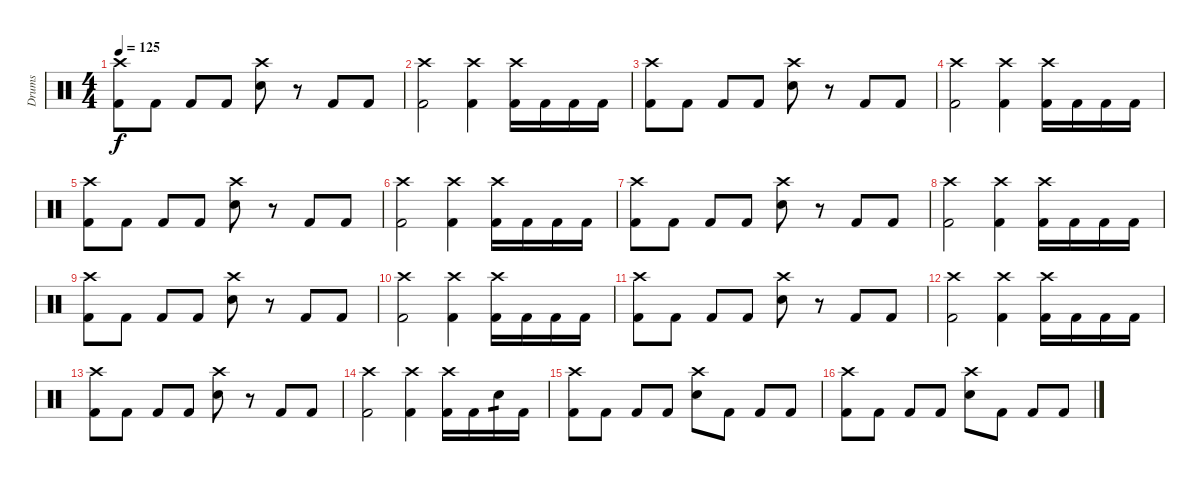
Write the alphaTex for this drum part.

\track ("Drums" "Drums") {instrument percussion}
\staff {score}
\articulation defaults
\ts (4 4)
\tempo 125
\clef neutral
\ks c
("Kick (hit) 2" "Crash high (hit)").8{dy f} "Kick (hit) 2".8 "Kick (hit) 2".8 "Kick (hit) 2".8 ("Snare (hit) 2" "Crash high (hit)").8 r.8 "Kick (hit) 2".8 "Kick (hit) 2".8 |
("Crash high (hit)" "Kick (hit) 2").2 ("Crash high (hit)" "Kick (hit) 2").4 ("Crash high (hit)" "Kick (hit) 2").16 "Kick (hit) 2".16 "Kick (hit) 2".16 "Kick (hit) 2".16 |
("Kick (hit) 2" "Crash high (hit)").8 "Kick (hit) 2".8 "Kick (hit) 2".8 "Kick (hit) 2".8 ("Snare (hit) 2" "Crash high (hit)").8 r.8 "Kick (hit) 2".8 "Kick (hit) 2".8 |
("Crash high (hit)" "Kick (hit) 2").2 ("Crash high (hit)" "Kick (hit) 2").4 ("Crash high (hit)" "Kick (hit) 2").16 "Kick (hit) 2".16 "Kick (hit) 2".16 "Kick (hit) 2".16 |
("Kick (hit) 2" "Crash high (hit)").8 "Kick (hit) 2".8 "Kick (hit) 2".8 "Kick (hit) 2".8 ("Snare (hit) 2" "Crash high (hit)").8 r.8 "Kick (hit) 2".8 "Kick (hit) 2".8 |
("Crash high (hit)" "Kick (hit) 2").2 ("Crash high (hit)" "Kick (hit) 2").4 ("Crash high (hit)" "Kick (hit) 2").16 "Kick (hit) 2".16 "Kick (hit) 2".16 "Kick (hit) 2".16 |
("Kick (hit) 2" "Crash high (hit)").8 "Kick (hit) 2".8 "Kick (hit) 2".8 "Kick (hit) 2".8 ("Snare (hit) 2" "Crash high (hit)").8 r.8 "Kick (hit) 2".8 "Kick (hit) 2".8 |
("Crash high (hit)" "Kick (hit) 2").2 ("Crash high (hit)" "Kick (hit) 2").4 ("Crash high (hit)" "Kick (hit) 2").16 "Kick (hit) 2".16 "Kick (hit) 2".16 "Kick (hit) 2".16 |
("Kick (hit) 2" "Crash high (hit)").8 "Kick (hit) 2".8 "Kick (hit) 2".8 "Kick (hit) 2".8 ("Snare (hit) 2" "Crash high (hit)").8 r.8 "Kick (hit) 2".8 "Kick (hit) 2".8 |
("Crash high (hit)" "Kick (hit) 2").2 ("Crash high (hit)" "Kick (hit) 2").4 ("Crash high (hit)" "Kick (hit) 2").16 "Kick (hit) 2".16 "Kick (hit) 2".16 "Kick (hit) 2".16 |
("Kick (hit) 2" "Crash high (hit)").8 "Kick (hit) 2".8 "Kick (hit) 2".8 "Kick (hit) 2".8 ("Snare (hit) 2" "Crash high (hit)").8 r.8 "Kick (hit) 2".8 "Kick (hit) 2".8 |
("Crash high (hit)" "Kick (hit) 2").2 ("Crash high (hit)" "Kick (hit) 2").4 ("Crash high (hit)" "Kick (hit) 2").16 "Kick (hit) 2".16 "Kick (hit) 2".16 "Kick (hit) 2".16 |
("Kick (hit) 2" "Crash high (hit)").8 "Kick (hit) 2".8 "Kick (hit) 2".8 "Kick (hit) 2".8 ("Snare (hit) 2" "Crash high (hit)").8 r.8 "Kick (hit) 2".8 "Kick (hit) 2".8 |
("Crash high (hit)" "Kick (hit) 2").2 ("Crash high (hit)" "Kick (hit) 2").4 ("Crash high (hit)" "Kick (hit) 2").16 "Kick (hit) 2".16 "Snare (hit) 2".16{tp 1} "Kick (hit) 2".16 |
("Crash high (hit)" "Kick (hit) 2").8 "Kick (hit) 2".8 "Kick (hit) 2".8 "Kick (hit) 2".8 ("Crash high (hit)" "Snare (hit) 2").8 "Kick (hit) 2".8 "Kick (hit) 2".8 "Kick (hit) 2".8 |
("Crash high (hit)" "Kick (hit) 2").8 "Kick (hit) 2".8 "Kick (hit) 2".8 "Kick (hit) 2".8 ("Crash high (hit)" "Snare (hit) 2").8 "Kick (hit) 2".8 "Kick (hit) 2".8 "Kick (hit) 2".8
